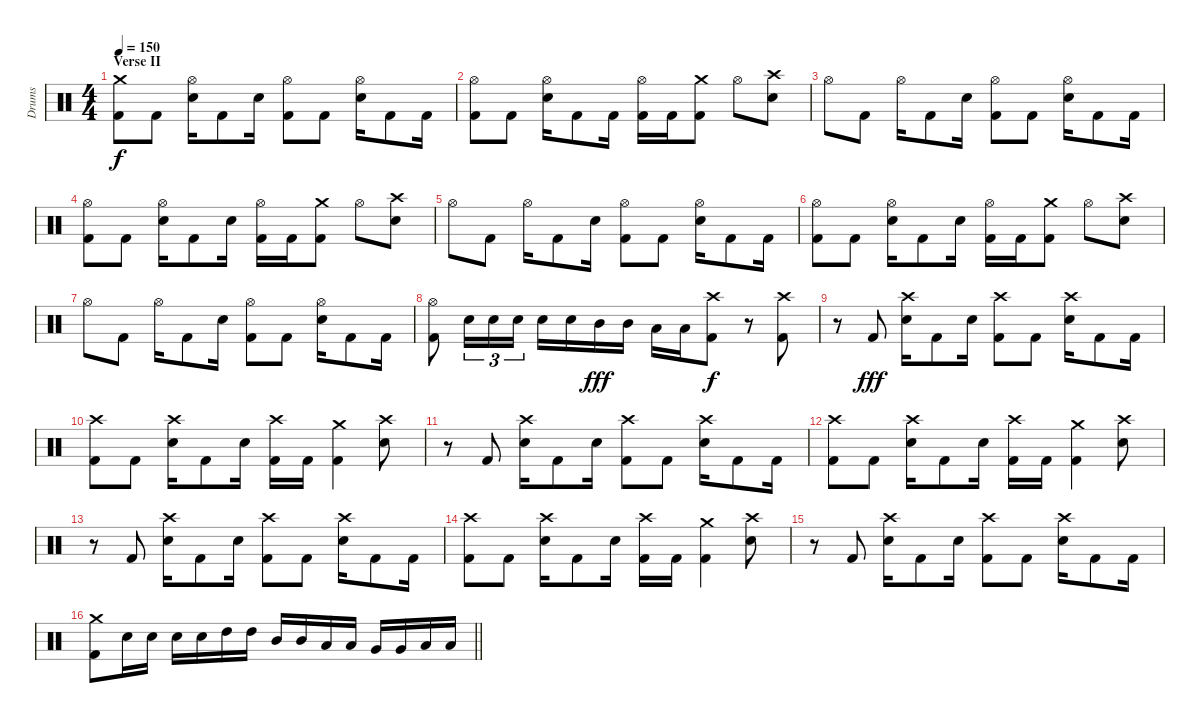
\track ("Drums" "Drums") {instrument percussion}
\staff {score}
\articulation defaults
\ts (4 4)
\section ("" "Verse II")
\tempo 150
\clef neutral
\ks c
("Crash medium (hit)" "Kick (hit) 2").8{dy f} "Kick (hit) 2".8 ("Hi-Hat (open)" "Electric Snare (hit)").16 "Kick (hit) 2".8 "Electric Snare (hit)".16 ("Hi-Hat (open)" "Kick (hit) 2").8 "Kick (hit) 2".8 ("Hi-Hat (open)" "Electric Snare (hit)").16 "Kick (hit) 2".8 "Kick (hit) 2".16 |
("Hi-Hat (open)" "Kick (hit) 2").8 "Kick (hit) 2".8 ("Hi-Hat (open)" "Electric Snare (hit)").16 "Kick (hit) 2".8 "Kick (hit) 2".16 ("Hi-Hat (open)" "Kick (hit) 2").16 "Kick (hit) 2".16 ("Crash medium (hit)" "Kick (hit) 2").8 "Hi-Hat (open)".8 ("Crash high (hit)" "Electric Snare (hit)").8 |
"Hi-Hat (open)".8 "Kick (hit) 2".8 "Hi-Hat (open)".16 "Kick (hit) 2".8 "Electric Snare (hit)".16 ("Hi-Hat (open)" "Kick (hit) 2").8 "Kick (hit) 2".8 ("Hi-Hat (open)" "Electric Snare (hit)").16 "Kick (hit) 2".8 "Kick (hit) 2".16 |
("Hi-Hat (open)" "Kick (hit) 2").8 "Kick (hit) 2".8 ("Hi-Hat (open)" "Electric Snare (hit)").16 "Kick (hit) 2".8 "Electric Snare (hit)".16 ("Hi-Hat (open)" "Kick (hit) 2").16 "Kick (hit) 2".16 ("Crash medium (hit)" "Kick (hit) 2").8 "Hi-Hat (open)".8 ("Crash high (hit)" "Electric Snare (hit)").8 |
"Hi-Hat (open)".8 "Kick (hit) 2".8 "Hi-Hat (open)".16 "Kick (hit) 2".8 "Electric Snare (hit)".16 ("Hi-Hat (open)" "Kick (hit) 2").8 "Kick (hit) 2".8 ("Hi-Hat (open)" "Electric Snare (hit)").16 "Kick (hit) 2".8 "Kick (hit) 2".16 |
("Hi-Hat (open)" "Kick (hit) 2").8 "Kick (hit) 2".8 ("Hi-Hat (open)" "Electric Snare (hit)").16 "Kick (hit) 2".8 "Electric Snare (hit)".16 ("Hi-Hat (open)" "Kick (hit) 2").16 "Kick (hit) 2".16 ("Crash medium (hit)" "Kick (hit) 2").8 "Hi-Hat (open)".8 ("Crash high (hit)" "Electric Snare (hit)").8 |
"Hi-Hat (open)".8 "Kick (hit) 2".8 "Hi-Hat (open)".16 "Kick (hit) 2".8 "Electric Snare (hit)".16 ("Hi-Hat (open)" "Kick (hit) 2").8 "Kick (hit) 2".8 ("Hi-Hat (open)" "Electric Snare (hit)").16 "Kick (hit) 2".8 "Kick (hit) 2".16 |
("Hi-Hat (open)" "Kick (hit) 2").8 "Electric Snare (hit)".16{tu (3 2)} "Electric Snare (hit)".16{tu (3 2)} "Electric Snare (hit)".16{tu (3 2)} "Electric Snare (hit)".16 "Electric Snare (hit)".16 "Mid Tom (hit)".16{dy fff} "Mid Tom (hit)".16 "Low Tom (hit)".16 "Low Tom (hit)".16 ("Crash high (hit)" "Kick (hit) 2").8{dy f} r.8 ("Crash high (hit)" "Kick (hit) 2").8 |
r.8 "Kick (hit) 2".8{dy fff} ("Crash high (hit)" "Electric Snare (hit)").16 "Kick (hit) 2".8 "Electric Snare (hit)".16 ("Crash high (hit)" "Kick (hit) 2").8 "Kick (hit) 2".8 ("Crash high (hit)" "Electric Snare (hit)").16 "Kick (hit) 2".8 "Kick (hit) 2".16 |
("Crash high (hit)" "Kick (hit) 2").8 "Kick (hit) 2".8 ("Crash high (hit)" "Electric Snare (hit)").16 "Kick (hit) 2".8 "Electric Snare (hit)".16 ("Crash high (hit)" "Kick (hit) 2").16 "Kick (hit) 2".16 ("Crash medium (hit)" "Kick (hit) 2").4 ("Crash high (hit)" "Electric Snare (hit)").8 |
r.8 "Kick (hit) 2".8 ("Crash high (hit)" "Electric Snare (hit)").16 "Kick (hit) 2".8 "Electric Snare (hit)".16 ("Crash high (hit)" "Kick (hit) 2").8 "Kick (hit) 2".8 ("Crash high (hit)" "Electric Snare (hit)").16 "Kick (hit) 2".8 "Kick (hit) 2".16 |
("Crash high (hit)" "Kick (hit) 2").8 "Kick (hit) 2".8 ("Crash high (hit)" "Electric Snare (hit)").16 "Kick (hit) 2".8 "Electric Snare (hit)".16 ("Crash high (hit)" "Kick (hit) 2").16 "Kick (hit) 2".16 ("Crash medium (hit)" "Kick (hit) 2").4 ("Crash high (hit)" "Electric Snare (hit)").8 |
r.8 "Kick (hit) 2".8 ("Crash high (hit)" "Electric Snare (hit)").16 "Kick (hit) 2".8 "Electric Snare (hit)".16 ("Crash high (hit)" "Kick (hit) 2").8 "Kick (hit) 2".8 ("Crash high (hit)" "Electric Snare (hit)").16 "Kick (hit) 2".8 "Kick (hit) 2".16 |
("Crash high (hit)" "Kick (hit) 2").8 "Kick (hit) 2".8 ("Crash high (hit)" "Electric Snare (hit)").16 "Kick (hit) 2".8 "Electric Snare (hit)".16 ("Crash high (hit)" "Kick (hit) 2").16 "Kick (hit) 2".16 ("Crash medium (hit)" "Kick (hit) 2").4 ("Crash high (hit)" "Electric Snare (hit)").8 |
r.8 "Kick (hit) 2".8 ("Crash high (hit)" "Electric Snare (hit)").16 "Kick (hit) 2".8 "Electric Snare (hit)".16 ("Crash high (hit)" "Kick (hit) 2").8 "Kick (hit) 2".8 ("Crash high (hit)" "Electric Snare (hit)").16 "Kick (hit) 2".8 "Kick (hit) 2".16 |
\barLineRight lightlight
("Crash medium (hit)" "Kick (hit) 2").8 "Electric Snare (hit)".16 "Electric Snare (hit)".16 "Electric Snare (hit)".16 "Electric Snare (hit)".16 "High Tom (hit)".16 "High Tom (hit)".16 "Mid Tom (hit)".16 "Mid Tom (hit)".16 "Low Tom (hit)".16 "Low Tom (hit)".16 "Very Low Tom (hit)".16 "Very Low Tom (hit)".16 "Low Floor Tom (hit)".16 "Low Floor Tom (hit)".16
